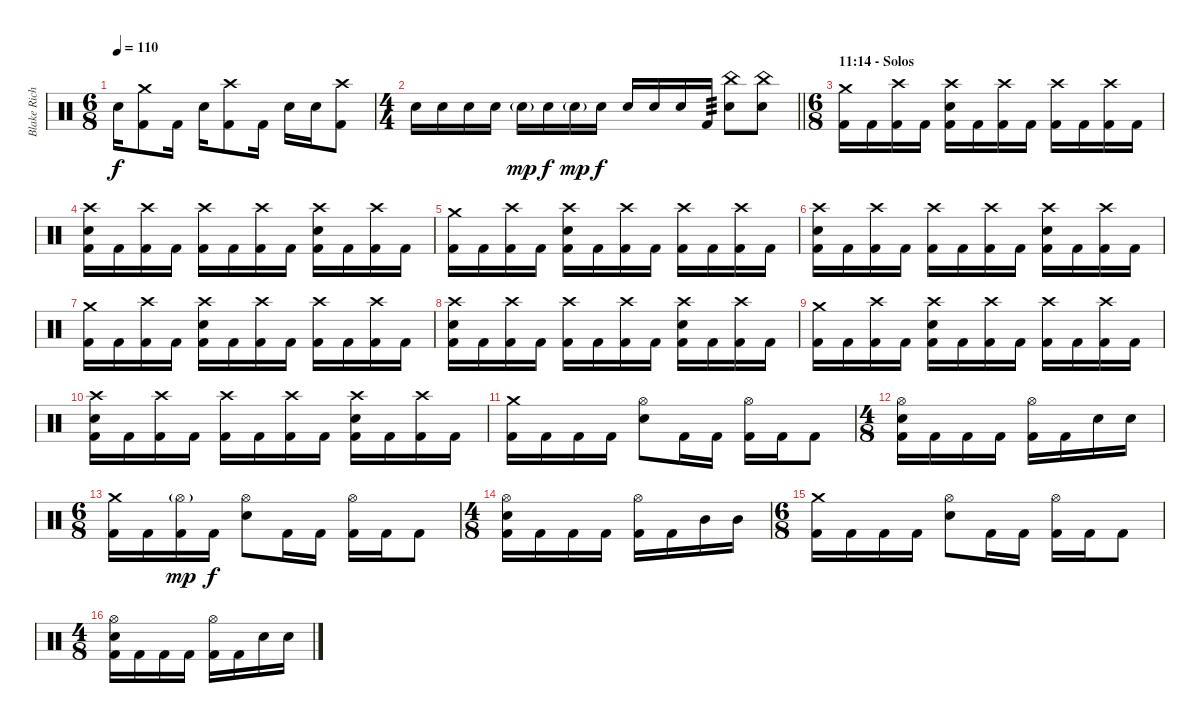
\track ("Blake Richardson" "Blake Rich") {instrument percussion}
\staff {score}
\articulation defaults
\ts (6 8)
\tempo 110
\clef neutral
\ks c "Electric Snare (hit)".16{dy f}
("Crash medium (hit)" "Kick (hit) 2").8 "Kick (hit) 2".16{beam split} "Electric Snare (hit)".16 ("Crash high (hit)" "Kick (hit) 2").8{beam merge} "Kick (hit) 2".16{beam split} "Electric Snare (hit)".16 "Electric Snare (hit)".16 ("Crash high (hit)" "Kick (hit) 2").8 |
\ts (4 4)
\barLineRight lightlight "Electric Snare (hit)".16 "Electric Snare (hit)".16 "Electric Snare (hit)".16 "Electric Snare (hit)".16 "Electric Snare (hit)"{g}.16{dy mp} "Electric Snare (hit)".16{dy f} "Electric Snare (hit)"{g}.16{dy mp} "Electric Snare (hit)".16{dy f} "Electric Snare (hit)".16 "Electric Snare (hit)".16 "Electric Snare (hit)".16 "Kick (hit) 2".16{tp 3}
("China (hit)" "Electric Snare (hit)").8 ("China (hit)" "Electric Snare (hit)").8 |
\ts (6 8)
\section ("" "11:14 - Solos")
("Crash medium (hit)" "Kick (hit) 2").16 "Kick (hit) 2".16 ("Crash high (hit)" "Kick (hit) 2").16 "Kick (hit) 2".16{beam split} ("Crash high (hit)" "Electric Snare (hit)" "Kick (hit) 2").16 "Kick (hit) 2".16{beam merge} ("Crash high (hit)" "Kick (hit) 2").16 "Kick (hit) 2".16{beam split} ("Crash high (hit)" "Kick (hit) 2").16 "Kick (hit) 2".16 ("Crash high (hit)" "Kick (hit) 2").16 "Kick (hit) 2".16 |
("Crash high (hit)" "Electric Snare (hit)" "Kick (hit) 2").16 "Kick (hit) 2".16 ("Crash high (hit)" "Kick (hit) 2").16 "Kick (hit) 2".16{beam split} ("Crash high (hit)" "Kick (hit) 2").16 "Kick (hit) 2".16{beam merge} ("Crash high (hit)" "Kick (hit) 2").16 "Kick (hit) 2".16{beam split} ("Crash high (hit)" "Electric Snare (hit)" "Kick (hit) 2").16 "Kick (hit) 2".16 ("Crash high (hit)" "Kick (hit) 2").16 "Kick (hit) 2".16 |
("Crash medium (hit)" "Kick (hit) 2").16 "Kick (hit) 2".16 ("Crash high (hit)" "Kick (hit) 2").16 "Kick (hit) 2".16{beam split} ("Crash high (hit)" "Electric Snare (hit)" "Kick (hit) 2").16 "Kick (hit) 2".16{beam merge} ("Crash high (hit)" "Kick (hit) 2").16 "Kick (hit) 2".16{beam split} ("Crash high (hit)" "Kick (hit) 2").16 "Kick (hit) 2".16 ("Crash high (hit)" "Kick (hit) 2").16 "Kick (hit) 2".16 |
("Crash high (hit)" "Electric Snare (hit)" "Kick (hit) 2").16 "Kick (hit) 2".16 ("Crash high (hit)" "Kick (hit) 2").16 "Kick (hit) 2".16{beam split} ("Crash high (hit)" "Kick (hit) 2").16 "Kick (hit) 2".16{beam merge} ("Crash high (hit)" "Kick (hit) 2").16 "Kick (hit) 2".16{beam split} ("Crash high (hit)" "Electric Snare (hit)" "Kick (hit) 2").16 "Kick (hit) 2".16 ("Crash high (hit)" "Kick (hit) 2").16 "Kick (hit) 2".16 |
("Crash medium (hit)" "Kick (hit) 2").16 "Kick (hit) 2".16 ("Crash high (hit)" "Kick (hit) 2").16 "Kick (hit) 2".16{beam split} ("Crash high (hit)" "Electric Snare (hit)" "Kick (hit) 2").16 "Kick (hit) 2".16{beam merge} ("Crash high (hit)" "Kick (hit) 2").16 "Kick (hit) 2".16{beam split} ("Crash high (hit)" "Kick (hit) 2").16 "Kick (hit) 2".16 ("Crash high (hit)" "Kick (hit) 2").16 "Kick (hit) 2".16 |
("Crash high (hit)" "Electric Snare (hit)" "Kick (hit) 2").16 "Kick (hit) 2".16 ("Crash high (hit)" "Kick (hit) 2").16 "Kick (hit) 2".16{beam split} ("Crash high (hit)" "Kick (hit) 2").16 "Kick (hit) 2".16{beam merge} ("Crash high (hit)" "Kick (hit) 2").16 "Kick (hit) 2".16{beam split} ("Crash high (hit)" "Electric Snare (hit)" "Kick (hit) 2").16 "Kick (hit) 2".16 ("Crash high (hit)" "Kick (hit) 2").16 "Kick (hit) 2".16 |
("Crash medium (hit)" "Kick (hit) 2").16 "Kick (hit) 2".16 ("Crash high (hit)" "Kick (hit) 2").16 "Kick (hit) 2".16{beam split} ("Crash high (hit)" "Electric Snare (hit)" "Kick (hit) 2").16 "Kick (hit) 2".16{beam merge} ("Crash high (hit)" "Kick (hit) 2").16 "Kick (hit) 2".16{beam split} ("Crash high (hit)" "Kick (hit) 2").16 "Kick (hit) 2".16 ("Crash high (hit)" "Kick (hit) 2").16 "Kick (hit) 2".16 |
("Crash high (hit)" "Electric Snare (hit)" "Kick (hit) 2").16 "Kick (hit) 2".16 ("Crash high (hit)" "Kick (hit) 2").16 "Kick (hit) 2".16{beam split} ("Crash high (hit)" "Kick (hit) 2").16 "Kick (hit) 2".16{beam merge} ("Crash high (hit)" "Kick (hit) 2").16 "Kick (hit) 2".16{beam split} ("Crash high (hit)" "Electric Snare (hit)" "Kick (hit) 2").16 "Kick (hit) 2".16 ("Crash high (hit)" "Kick (hit) 2").16 "Kick (hit) 2".16 |
("Crash medium (hit)" "Kick (hit) 2").16 "Kick (hit) 2".16 "Kick (hit) 2".16 "Kick (hit) 2".16{beam split} ("Hi-Hat (open)" "Electric Snare (hit)").8{beam merge} "Kick (hit) 2".16 "Kick (hit) 2".16{beam split} ("Hi-Hat (open)" "Kick (hit) 2").16 "Kick (hit) 2".16 "Kick (hit) 2".8 |
\ts (4 8)
("Hi-Hat (open)" "Electric Snare (hit)" "Kick (hit) 2").16 "Kick (hit) 2".16{beam merge} "Kick (hit) 2".16 "Kick (hit) 2".16 ("Hi-Hat (open)" "Kick (hit) 2").16 "Kick (hit) 2".16{beam merge} "Electric Snare (hit)".16 "Electric Snare (hit)".16 |
\ts (6 8)
("Crash medium (hit)" "Kick (hit) 2").16 "Kick (hit) 2".16 ("Hi-Hat (open)"{g} "Kick (hit) 2").16{dy mp} "Kick (hit) 2".16{dy f beam split} ("Hi-Hat (open)" "Electric Snare (hit)").8{beam merge} "Kick (hit) 2".16 "Kick (hit) 2".16{beam split} ("Hi-Hat (open)" "Kick (hit) 2").16 "Kick (hit) 2".16 "Kick (hit) 2".8 |
\ts (4 8)
("Hi-Hat (open)" "Electric Snare (hit)" "Kick (hit) 2").16 "Kick (hit) 2".16{beam merge} "Kick (hit) 2".16 "Kick (hit) 2".16 ("Hi-Hat (open)" "Kick (hit) 2").16 "Kick (hit) 2".16{beam merge} "Mid Tom (hit)".16 "Mid Tom (hit)".16 |
\ts (6 8)
("Crash medium (hit)" "Kick (hit) 2").16 "Kick (hit) 2".16 "Kick (hit) 2".16 "Kick (hit) 2".16{beam split} ("Hi-Hat (open)" "Electric Snare (hit)").8{beam merge} "Kick (hit) 2".16 "Kick (hit) 2".16{beam split} ("Hi-Hat (open)" "Kick (hit) 2").16 "Kick (hit) 2".16 "Kick (hit) 2".8 |
\ts (4 8)
("Hi-Hat (open)" "Electric Snare (hit)" "Kick (hit) 2").16 "Kick (hit) 2".16{beam merge} "Kick (hit) 2".16 "Kick (hit) 2".16 ("Hi-Hat (open)" "Kick (hit) 2").16 "Kick (hit) 2".16{beam merge} "Electric Snare (hit)".16 "Electric Snare (hit)".16
